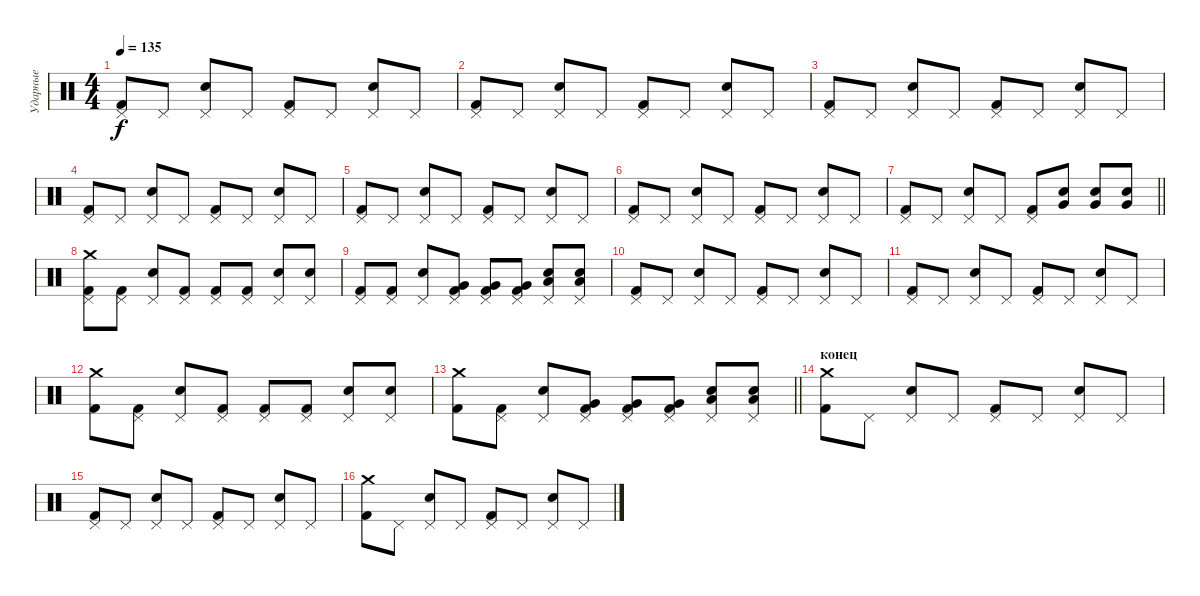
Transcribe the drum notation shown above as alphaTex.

\track ("Ударные" "Ударные") {instrument percussion}
\staff {score}
\articulation defaults
\ts (4 4)
\tempo 135
\clef neutral
\ks c
("Pedal Hi-Hat (hit)" "Kick (hit) 2").8{dy f} "Pedal Hi-Hat (hit)".8 ("Pedal Hi-Hat (hit)" "Electric Snare (hit)").8 "Pedal Hi-Hat (hit)".8 ("Pedal Hi-Hat (hit)" "Kick (hit) 2").8 "Pedal Hi-Hat (hit)".8 ("Pedal Hi-Hat (hit)" "Electric Snare (hit)").8 "Pedal Hi-Hat (hit)".8 |
("Pedal Hi-Hat (hit)" "Kick (hit) 2").8 "Pedal Hi-Hat (hit)".8 ("Pedal Hi-Hat (hit)" "Electric Snare (hit)").8 "Pedal Hi-Hat (hit)".8 ("Pedal Hi-Hat (hit)" "Kick (hit) 2").8 "Pedal Hi-Hat (hit)".8 ("Pedal Hi-Hat (hit)" "Electric Snare (hit)").8 "Pedal Hi-Hat (hit)".8 |
("Pedal Hi-Hat (hit)" "Kick (hit) 2").8 "Pedal Hi-Hat (hit)".8 ("Pedal Hi-Hat (hit)" "Electric Snare (hit)").8 "Pedal Hi-Hat (hit)".8 ("Pedal Hi-Hat (hit)" "Kick (hit) 2").8 "Pedal Hi-Hat (hit)".8 ("Pedal Hi-Hat (hit)" "Electric Snare (hit)").8 "Pedal Hi-Hat (hit)".8 |
("Pedal Hi-Hat (hit)" "Kick (hit) 2").8 "Pedal Hi-Hat (hit)".8 ("Pedal Hi-Hat (hit)" "Electric Snare (hit)").8 "Pedal Hi-Hat (hit)".8 ("Pedal Hi-Hat (hit)" "Kick (hit) 2").8 "Pedal Hi-Hat (hit)".8 ("Pedal Hi-Hat (hit)" "Electric Snare (hit)").8 "Pedal Hi-Hat (hit)".8 |
("Pedal Hi-Hat (hit)" "Kick (hit) 2").8 "Pedal Hi-Hat (hit)".8 ("Pedal Hi-Hat (hit)" "Electric Snare (hit)").8 "Pedal Hi-Hat (hit)".8 ("Pedal Hi-Hat (hit)" "Kick (hit) 2").8 "Pedal Hi-Hat (hit)".8 ("Pedal Hi-Hat (hit)" "Electric Snare (hit)").8 "Pedal Hi-Hat (hit)".8 |
("Pedal Hi-Hat (hit)" "Kick (hit) 2").8 "Pedal Hi-Hat (hit)".8 ("Pedal Hi-Hat (hit)" "Electric Snare (hit)").8 "Pedal Hi-Hat (hit)".8 ("Pedal Hi-Hat (hit)" "Kick (hit) 2").8 "Pedal Hi-Hat (hit)".8 ("Pedal Hi-Hat (hit)" "Electric Snare (hit)").8 "Pedal Hi-Hat (hit)".8 |
\barLineRight lightlight
("Pedal Hi-Hat (hit)" "Kick (hit) 2").8 "Pedal Hi-Hat (hit)".8 ("Pedal Hi-Hat (hit)" "Electric Snare (hit)").8 "Pedal Hi-Hat (hit)".8 ("Pedal Hi-Hat (hit)" "Kick (hit) 2").8 ("Electric Snare (hit)" "Very Low Tom (hit)").8 ("Electric Snare (hit)" "Very Low Tom (hit)").8 ("Electric Snare (hit)" "Very Low Tom (hit)").8 |
("Crash medium (hit)" "Pedal Hi-Hat (hit)" "Kick (hit) 2").8 ("Pedal Hi-Hat (hit)" "Kick (hit) 2").8 ("Pedal Hi-Hat (hit)" "Electric Snare (hit)").8 ("Pedal Hi-Hat (hit)" "Kick (hit) 2").8 ("Pedal Hi-Hat (hit)" "Kick (hit) 2").8 ("Pedal Hi-Hat (hit)" "Kick (hit) 2").8 ("Pedal Hi-Hat (hit)" "Electric Snare (hit)").8 ("Pedal Hi-Hat (hit)" "Electric Snare (hit)").8 |
("Pedal Hi-Hat (hit)" "Kick (hit) 2").8 ("Pedal Hi-Hat (hit)" "Kick (hit) 2").8 ("Pedal Hi-Hat (hit)" "Electric Snare (hit)").8 ("Pedal Hi-Hat (hit)" "Very Low Tom (hit)" "Kick (hit) 2").8 ("Pedal Hi-Hat (hit)" "Very Low Tom (hit)" "Kick (hit) 2").8 ("Pedal Hi-Hat (hit)" "Very Low Tom (hit)" "Kick (hit) 2").8 ("Pedal Hi-Hat (hit)" "Low Floor Tom (hit)" "Electric Snare (hit)").8 ("Pedal Hi-Hat (hit)" "Low Floor Tom (hit)" "Electric Snare (hit)").8 |
("Pedal Hi-Hat (hit)" "Kick (hit) 2").8 "Pedal Hi-Hat (hit)".8 ("Pedal Hi-Hat (hit)" "Electric Snare (hit)").8 "Pedal Hi-Hat (hit)".8 ("Pedal Hi-Hat (hit)" "Kick (hit) 2").8 "Pedal Hi-Hat (hit)".8 ("Pedal Hi-Hat (hit)" "Electric Snare (hit)").8 "Pedal Hi-Hat (hit)".8 |
("Pedal Hi-Hat (hit)" "Kick (hit) 2").8 "Pedal Hi-Hat (hit)".8 ("Pedal Hi-Hat (hit)" "Electric Snare (hit)").8 "Pedal Hi-Hat (hit)".8 ("Pedal Hi-Hat (hit)" "Kick (hit) 2").8 "Pedal Hi-Hat (hit)".8 ("Pedal Hi-Hat (hit)" "Electric Snare (hit)").8 "Pedal Hi-Hat (hit)".8 |
("Crash medium (hit)" "Kick (hit) 2").8 ("Pedal Hi-Hat (hit)" "Kick (hit) 2").8 ("Pedal Hi-Hat (hit)" "Electric Snare (hit)").8 ("Pedal Hi-Hat (hit)" "Kick (hit) 2").8 ("Pedal Hi-Hat (hit)" "Kick (hit) 2").8 ("Pedal Hi-Hat (hit)" "Kick (hit) 2").8 ("Pedal Hi-Hat (hit)" "Electric Snare (hit)").8 ("Pedal Hi-Hat (hit)" "Electric Snare (hit)").8 |
\barLineRight lightlight
("Crash medium (hit)" "Kick (hit) 2").8 ("Pedal Hi-Hat (hit)" "Kick (hit) 2").8 ("Pedal Hi-Hat (hit)" "Electric Snare (hit)").8 ("Pedal Hi-Hat (hit)" "Very Low Tom (hit)" "Kick (hit) 2").8 ("Pedal Hi-Hat (hit)" "Very Low Tom (hit)" "Kick (hit) 2").8 ("Pedal Hi-Hat (hit)" "Very Low Tom (hit)" "Kick (hit) 2").8 ("Pedal Hi-Hat (hit)" "Low Floor Tom (hit)" "Electric Snare (hit)").8 ("Pedal Hi-Hat (hit)" "Low Floor Tom (hit)" "Electric Snare (hit)").8 |
\section ("" "конец")
("Crash medium (hit)" "Kick (hit) 2").8 "Pedal Hi-Hat (hit)".8 ("Pedal Hi-Hat (hit)" "Electric Snare (hit)").8 "Pedal Hi-Hat (hit)".8 ("Pedal Hi-Hat (hit)" "Kick (hit) 2").8 "Pedal Hi-Hat (hit)".8 ("Pedal Hi-Hat (hit)" "Electric Snare (hit)").8 "Pedal Hi-Hat (hit)".8 |
("Pedal Hi-Hat (hit)" "Kick (hit) 2").8 "Pedal Hi-Hat (hit)".8 ("Pedal Hi-Hat (hit)" "Electric Snare (hit)").8 "Pedal Hi-Hat (hit)".8 ("Pedal Hi-Hat (hit)" "Kick (hit) 2").8 "Pedal Hi-Hat (hit)".8 ("Pedal Hi-Hat (hit)" "Electric Snare (hit)").8 "Pedal Hi-Hat (hit)".8 |
("Crash medium (hit)" "Kick (hit) 2").8 "Pedal Hi-Hat (hit)".8 ("Pedal Hi-Hat (hit)" "Electric Snare (hit)").8 "Pedal Hi-Hat (hit)".8 ("Pedal Hi-Hat (hit)" "Kick (hit) 2").8 "Pedal Hi-Hat (hit)".8 ("Pedal Hi-Hat (hit)" "Electric Snare (hit)").8 "Pedal Hi-Hat (hit)".8
